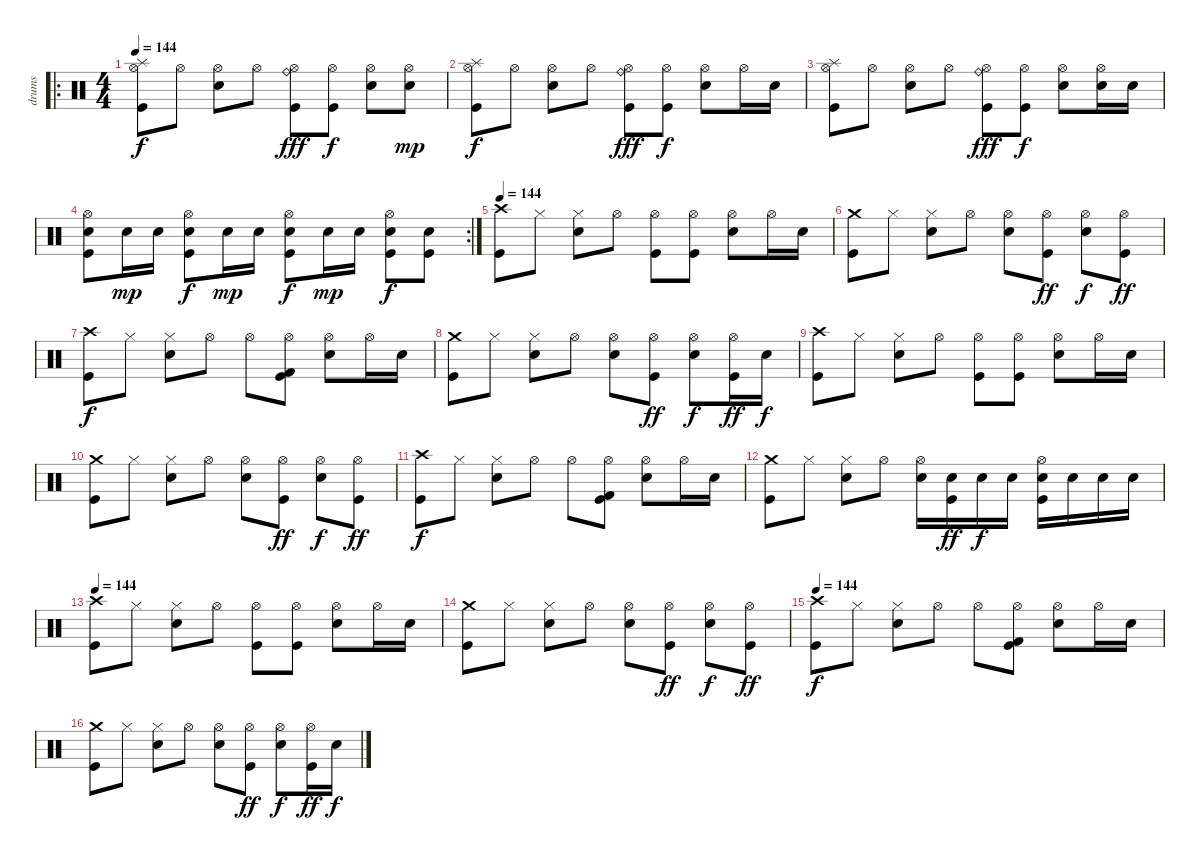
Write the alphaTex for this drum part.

\track ("drums" "drums") {instrument percussion}
\staff {score}
\articulation defaults
\ro
\ts (4 4)
\tempo 144
\clef neutral
\ks c
("Hi-Hat (open)" "Splash (hit)" "Kick (hit)").8{dy f} "Hi-Hat (open)".8 ("Hi-Hat (open)" "Electric Snare (hit)").8 "Hi-Hat (open)".8 ("Hi-Hat (open)" "Ride (bell)" "Kick (hit)").8{dy fff} ("Hi-Hat (open)" "Kick (hit)").8{dy f} ("Hi-Hat (open)" "Electric Snare (hit)").8 ("Hi-Hat (open)" "Electric Snare (hit)").8{dy mp} |
("Hi-Hat (open)" "Splash (hit)" "Kick (hit)").8{dy f} "Hi-Hat (open)".8 ("Hi-Hat (open)" "Electric Snare (hit)").8 "Hi-Hat (open)".8 ("Hi-Hat (open)" "Ride (bell)" "Kick (hit)").8{dy fff} ("Hi-Hat (open)" "Kick (hit)").8{dy f} ("Hi-Hat (open)" "Electric Snare (hit)").8 "Hi-Hat (open)".16 "Electric Snare (hit)".16 |
("Hi-Hat (open)" "Splash (hit)" "Kick (hit)").8 "Hi-Hat (open)".8 ("Hi-Hat (open)" "Electric Snare (hit)").8 "Hi-Hat (open)".8 ("Hi-Hat (open)" "Ride (bell)" "Kick (hit)").8{dy fff} ("Hi-Hat (open)" "Kick (hit)").8{dy f} ("Hi-Hat (open)" "Electric Snare (hit)").8 ("Hi-Hat (open)" "Electric Snare (hit)").16 "Electric Snare (hit)".16 |
\rc 2
("Hi-Hat (open)" "Electric Snare (hit)" "Kick (hit)").8 "Electric Snare (hit)".16{dy mp} "Electric Snare (hit)".16 ("Hi-Hat (open)" "Electric Snare (hit)" "Kick (hit)").8{dy f} "Electric Snare (hit)".16{dy mp} "Electric Snare (hit)".16 ("Hi-Hat (open)" "Electric Snare (hit)" "Kick (hit)").8{dy f} "Electric Snare (hit)".16{dy mp} "Electric Snare (hit)".16 ("Hi-Hat (open)" "Electric Snare (hit)" "Kick (hit)").8{dy f} ("Electric Snare (hit)" "Kick (hit)").8 |
\tempo 144
("Crash high (hit)" "Kick (hit)").8 "Hi-Hat (closed)".8 ("Hi-Hat (closed)" "Electric Snare (hit)").8 "Hi-Hat (open)".8 ("Hi-Hat (open)" "Kick (hit)").8 ("Hi-Hat (open)" "Kick (hit)").8 ("Hi-Hat (open)" "Electric Snare (hit)").8 "Hi-Hat (open)".16 "Electric Snare (hit)".16 |
("Crash medium (hit)" "Kick (hit)").8 "Hi-Hat (closed)".8 ("Hi-Hat (closed)" "Electric Snare (hit)").8 "Hi-Hat (open)".8 ("Hi-Hat (open)" "Electric Snare (hit)").8 ("Hi-Hat (open)" "Kick (hit)").8{dy ff} ("Hi-Hat (open)" "Electric Snare (hit)").8{dy f} ("Hi-Hat (open)" "Kick (hit)").8{dy ff} |
("Crash high (hit)" "Kick (hit)").8{dy f} "Hi-Hat (closed)".8 ("Hi-Hat (closed)" "Electric Snare (hit)").8 "Hi-Hat (open)".8 "Hi-Hat (open)".8 ("Hi-Hat (open)" "Kick (hit) 2" "Kick (hit)").8 ("Hi-Hat (open)" "Electric Snare (hit)").8 "Hi-Hat (open)".16 "Electric Snare (hit)".16 |
("Crash medium (hit)" "Kick (hit)").8 "Hi-Hat (closed)".8 ("Hi-Hat (closed)" "Electric Snare (hit)").8 "Hi-Hat (open)".8 ("Hi-Hat (open)" "Electric Snare (hit)").8 ("Hi-Hat (open)" "Kick (hit)").8{dy ff} ("Hi-Hat (open)" "Electric Snare (hit)").8{dy f} ("Hi-Hat (open)" "Kick (hit)").16{dy ff} "Electric Snare (hit)".16{dy f} |
("Crash high (hit)" "Kick (hit)").8 "Hi-Hat (closed)".8 ("Hi-Hat (closed)" "Electric Snare (hit)").8 "Hi-Hat (open)".8 ("Hi-Hat (open)" "Kick (hit)").8 ("Hi-Hat (open)" "Kick (hit)").8 ("Hi-Hat (open)" "Electric Snare (hit)").8 "Hi-Hat (open)".16 "Electric Snare (hit)".16 |
("Crash medium (hit)" "Kick (hit)").8 "Hi-Hat (closed)".8 ("Hi-Hat (closed)" "Electric Snare (hit)").8 "Hi-Hat (open)".8 ("Hi-Hat (open)" "Electric Snare (hit)").8 ("Hi-Hat (open)" "Kick (hit)").8{dy ff} ("Hi-Hat (open)" "Electric Snare (hit)").8{dy f} ("Hi-Hat (open)" "Kick (hit)").8{dy ff} |
("Crash high (hit)" "Kick (hit)").8{dy f} "Hi-Hat (closed)".8 ("Hi-Hat (closed)" "Electric Snare (hit)").8 "Hi-Hat (open)".8 "Hi-Hat (open)".8 ("Hi-Hat (open)" "Kick (hit) 2" "Kick (hit)").8 ("Hi-Hat (open)" "Electric Snare (hit)").8 "Hi-Hat (open)".16 "Electric Snare (hit)".16 |
("Crash medium (hit)" "Kick (hit)").8 "Hi-Hat (closed)".8 ("Hi-Hat (closed)" "Electric Snare (hit)").8 "Hi-Hat (open)".8 ("Hi-Hat (open)" "Electric Snare (hit)").16 ("Electric Snare (hit)" "Kick (hit)").16{dy ff} "Electric Snare (hit)".16{dy f} "Electric Snare (hit)".16 ("Hi-Hat (open)" "Electric Snare (hit)" "Kick (hit)").16 "Electric Snare (hit)".16 "Electric Snare (hit)".16 "Electric Snare (hit)".16 |
\tempo 144
("Crash high (hit)" "Kick (hit)").8 "Hi-Hat (closed)".8 ("Hi-Hat (closed)" "Electric Snare (hit)").8 "Hi-Hat (open)".8 ("Hi-Hat (open)" "Kick (hit)").8 ("Hi-Hat (open)" "Kick (hit)").8 ("Hi-Hat (open)" "Electric Snare (hit)").8 "Hi-Hat (open)".16 "Electric Snare (hit)".16 |
("Crash medium (hit)" "Kick (hit)").8 "Hi-Hat (closed)".8 ("Hi-Hat (closed)" "Electric Snare (hit)").8 "Hi-Hat (open)".8 ("Hi-Hat (open)" "Electric Snare (hit)").8 ("Hi-Hat (open)" "Kick (hit)").8{dy ff} ("Hi-Hat (open)" "Electric Snare (hit)").8{dy f} ("Hi-Hat (open)" "Kick (hit)").8{dy ff} |
\tempo 144
("Crash high (hit)" "Kick (hit)").8{dy f} "Hi-Hat (closed)".8 ("Hi-Hat (closed)" "Electric Snare (hit)").8 "Hi-Hat (open)".8 "Hi-Hat (open)".8 ("Hi-Hat (open)" "Kick (hit) 2" "Kick (hit)").8 ("Hi-Hat (open)" "Electric Snare (hit)").8 "Hi-Hat (open)".16 "Electric Snare (hit)".16 |
("Crash medium (hit)" "Kick (hit)").8 "Hi-Hat (closed)".8 ("Hi-Hat (closed)" "Electric Snare (hit)").8 "Hi-Hat (open)".8 ("Hi-Hat (open)" "Electric Snare (hit)").8 ("Hi-Hat (open)" "Kick (hit)").8{dy ff} ("Hi-Hat (open)" "Electric Snare (hit)").8{dy f} ("Hi-Hat (open)" "Kick (hit)").16{dy ff} "Electric Snare (hit)".16{dy f}
